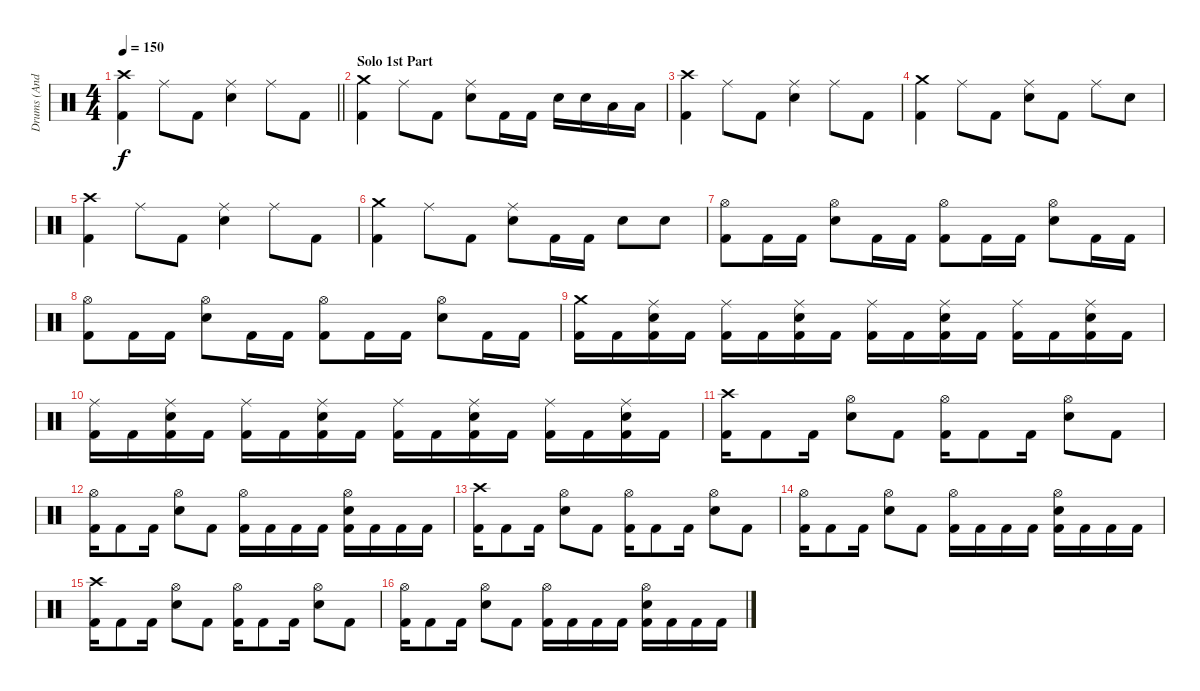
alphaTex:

\track ("Drums (Andy C)" "Drums (And") {instrument percussion}
\staff
\articulation defaults
\ts (4 4)
\tempo 150
\clef neutral
\barLineRight lightlight
\ks c
("Crash high (hit)" "Kick (hit) 2").4{dy f} "Ride (middle)".8 "Kick (hit) 2".8 ("Ride (middle)" "Electric Snare (hit)").4 "Ride (middle)".8 "Kick (hit) 2".8 |
\section ("" "Solo 1st Part")
("Crash medium (hit)" "Kick (hit) 2").4 "Ride (middle)".8 "Kick (hit) 2".8 ("Ride (middle)" "Electric Snare (hit)").8 "Kick (hit) 2".16 "Kick (hit) 2".16 "Electric Snare (hit)".16 "Electric Snare (hit)".16 "Low Tom (hit)".16 "Low Tom (hit)".16 |
("Crash high (hit)" "Kick (hit) 2").4 "Ride (middle)".8 "Kick (hit) 2".8 ("Ride (middle)" "Electric Snare (hit)").4 "Ride (middle)".8 "Kick (hit) 2".8 |
("Crash medium (hit)" "Kick (hit) 2").4 "Ride (middle)".8 "Kick (hit) 2".8 ("Ride (middle)" "Electric Snare (hit)").8 "Kick (hit) 2".8 "Ride (middle)".8 "Electric Snare (hit)".8 |
("Crash high (hit)" "Kick (hit) 2").4 "Ride (middle)".8 "Kick (hit) 2".8 ("Ride (middle)" "Electric Snare (hit)").4 "Ride (middle)".8 "Kick (hit) 2".8 |
("Crash medium (hit)" "Kick (hit) 2").4 "Ride (middle)".8 "Kick (hit) 2".8 ("Ride (middle)" "Electric Snare (hit)").8 "Kick (hit) 2".16 "Kick (hit) 2".16 "Electric Snare (hit)".8 "Electric Snare (hit)".8 |
("Hi-Hat (open)" "Kick (hit) 2").8 "Kick (hit) 2".16 "Kick (hit) 2".16 ("Hi-Hat (open)" "Electric Snare (hit)").8 "Kick (hit) 2".16 "Kick (hit) 2".16 ("Hi-Hat (open)" "Kick (hit) 2").8 "Kick (hit) 2".16 "Kick (hit) 2".16 ("Hi-Hat (open)" "Electric Snare (hit)").8 "Kick (hit) 2".16 "Kick (hit) 2".16 |
("Hi-Hat (open)" "Kick (hit) 2").8 "Kick (hit) 2".16 "Kick (hit) 2".16 ("Hi-Hat (open)" "Electric Snare (hit)").8 "Kick (hit) 2".16 "Kick (hit) 2".16 ("Hi-Hat (open)" "Kick (hit) 2").8 "Kick (hit) 2".16 "Kick (hit) 2".16 ("Hi-Hat (open)" "Electric Snare (hit)").8 "Kick (hit) 2".16 "Kick (hit) 2".16 |
("Crash medium (hit)" "Kick (hit) 2").16 "Kick (hit) 2".16 ("Ride (middle)" "Kick (hit) 2" "Electric Snare (hit)").16 "Kick (hit) 2".16 ("Ride (middle)" "Kick (hit) 2").16 "Kick (hit) 2".16 ("Ride (middle)" "Kick (hit) 2" "Electric Snare (hit)").16 "Kick (hit) 2".16 ("Ride (middle)" "Kick (hit) 2").16 "Kick (hit) 2".16 ("Ride (middle)" "Kick (hit) 2" "Electric Snare (hit)").16 "Kick (hit) 2".16 ("Ride (middle)" "Kick (hit) 2").16 "Kick (hit) 2".16 ("Ride (middle)" "Kick (hit) 2" "Electric Snare (hit)").16 "Kick (hit) 2".16 |
("Ride (middle)" "Kick (hit) 2").16 "Kick (hit) 2".16 ("Ride (middle)" "Kick (hit) 2" "Electric Snare (hit)").16 "Kick (hit) 2".16 ("Ride (middle)" "Kick (hit) 2").16 "Kick (hit) 2".16 ("Ride (middle)" "Kick (hit) 2" "Electric Snare (hit)").16 "Kick (hit) 2".16 ("Ride (middle)" "Kick (hit) 2").16 "Kick (hit) 2".16 ("Ride (middle)" "Kick (hit) 2" "Electric Snare (hit)").16 "Kick (hit) 2".16 ("Ride (middle)" "Kick (hit) 2").16 "Kick (hit) 2".16 ("Ride (middle)" "Kick (hit) 2" "Electric Snare (hit)").16 "Kick (hit) 2".16 |
("Crash high (hit)" "Kick (hit) 2").16 "Kick (hit) 2".8 "Kick (hit) 2".16 ("Hi-Hat (open)" "Electric Snare (hit)").8 "Kick (hit) 2".8 ("Hi-Hat (open)" "Kick (hit) 2").16 "Kick (hit) 2".8 "Kick (hit) 2".16 ("Hi-Hat (open)" "Electric Snare (hit)").8 "Kick (hit) 2".8 |
("Hi-Hat (open)" "Kick (hit) 2").16 "Kick (hit) 2".8 "Kick (hit) 2".16 ("Hi-Hat (open)" "Electric Snare (hit)").8 "Kick (hit) 2".8 ("Hi-Hat (open)" "Kick (hit) 2").16 "Kick (hit) 2".16 "Kick (hit) 2".16 "Kick (hit) 2".16 ("Hi-Hat (open)" "Kick (hit) 2" "Electric Snare (hit)").16 "Kick (hit) 2".16 "Kick (hit) 2".16 "Kick (hit) 2".16 |
("Crash high (hit)" "Kick (hit) 2").16 "Kick (hit) 2".8 "Kick (hit) 2".16 ("Hi-Hat (open)" "Electric Snare (hit)").8 "Kick (hit) 2".8 ("Hi-Hat (open)" "Kick (hit) 2").16 "Kick (hit) 2".8 "Kick (hit) 2".16 ("Hi-Hat (open)" "Electric Snare (hit)").8 "Kick (hit) 2".8 |
("Hi-Hat (open)" "Kick (hit) 2").16 "Kick (hit) 2".8 "Kick (hit) 2".16 ("Hi-Hat (open)" "Electric Snare (hit)").8 "Kick (hit) 2".8 ("Hi-Hat (open)" "Kick (hit) 2").16 "Kick (hit) 2".16 "Kick (hit) 2".16 "Kick (hit) 2".16 ("Hi-Hat (open)" "Kick (hit) 2" "Electric Snare (hit)").16 "Kick (hit) 2".16 "Kick (hit) 2".16 "Kick (hit) 2".16 |
("Crash high (hit)" "Kick (hit) 2").16 "Kick (hit) 2".8 "Kick (hit) 2".16 ("Hi-Hat (open)" "Electric Snare (hit)").8 "Kick (hit) 2".8 ("Hi-Hat (open)" "Kick (hit) 2").16 "Kick (hit) 2".8 "Kick (hit) 2".16 ("Hi-Hat (open)" "Electric Snare (hit)").8 "Kick (hit) 2".8 |
("Hi-Hat (open)" "Kick (hit) 2").16 "Kick (hit) 2".8 "Kick (hit) 2".16 ("Hi-Hat (open)" "Electric Snare (hit)").8 "Kick (hit) 2".8 ("Hi-Hat (open)" "Kick (hit) 2").16 "Kick (hit) 2".16 "Kick (hit) 2".16 "Kick (hit) 2".16 ("Hi-Hat (open)" "Kick (hit) 2" "Electric Snare (hit)").16 "Kick (hit) 2".16 "Kick (hit) 2".16 "Kick (hit) 2".16
